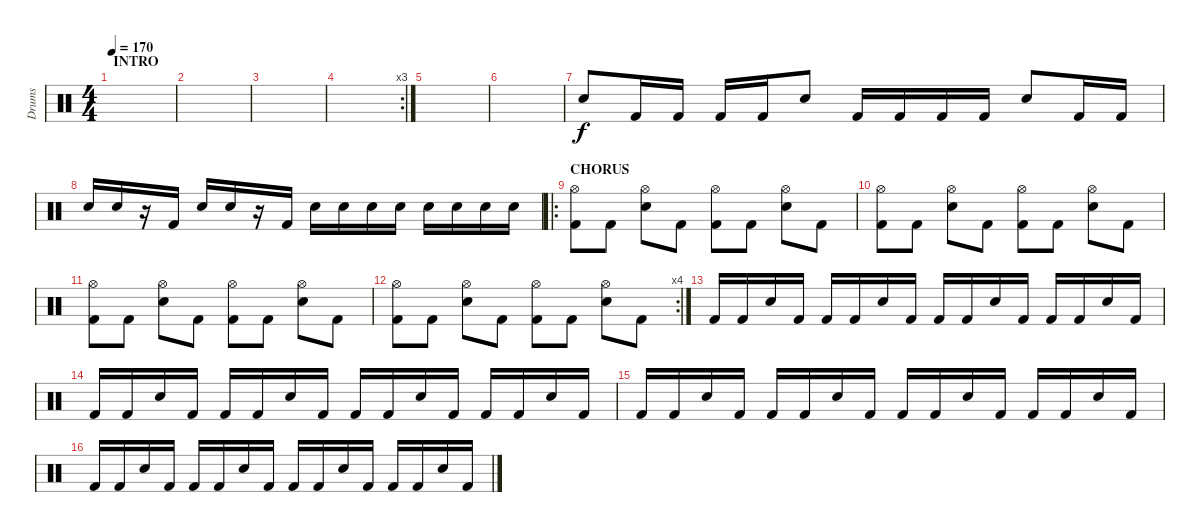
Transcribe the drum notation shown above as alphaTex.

\track ("Drums" "Drums") {instrument percussion}
\staff {score}
\articulation defaults
\ts (4 4)
\section ("" "INTRO")
\tempo 170
\clef neutral
\ks c
|
|
|
\rc 3
|
|
|
"Snare (hit) 2".8 "Kick (hit) 2".16 "Kick (hit) 2".16 "Kick (hit) 2".16 "Kick (hit) 2".16 "Snare (hit) 2".8 "Kick (hit) 2".16 "Kick (hit) 2".16 "Kick (hit) 2".16 "Kick (hit) 2".16 "Snare (hit) 2".8 "Kick (hit) 2".16 "Kick (hit) 2".16 |
"Snare (hit) 2".16 "Snare (hit) 2".16 r.16 "Kick (hit) 2".16 "Snare (hit) 2".16 "Snare (hit) 2".16 r.16 "Kick (hit) 2".16 "Snare (hit) 2".16 "Snare (hit) 2".16 "Snare (hit) 2".16 "Snare (hit) 2".16 "Snare (hit) 2".16 "Snare (hit) 2".16 "Snare (hit) 2".16 "Snare (hit) 2".16 |
\ro
\section ("" "CHORUS")
("Hi-Hat (open)" "Kick (hit) 2").8 "Kick (hit) 2".8 ("Hi-Hat (open)" "Snare (hit) 2").8 "Kick (hit) 2".8 ("Hi-Hat (open)" "Kick (hit) 2").8 "Kick (hit) 2".8 ("Hi-Hat (open)" "Snare (hit) 2").8 "Kick (hit) 2".8 |
("Hi-Hat (open)" "Kick (hit) 2").8 "Kick (hit) 2".8 ("Hi-Hat (open)" "Snare (hit) 2").8 "Kick (hit) 2".8 ("Hi-Hat (open)" "Kick (hit) 2").8 "Kick (hit) 2".8 ("Hi-Hat (open)" "Snare (hit) 2").8 "Kick (hit) 2".8 |
("Hi-Hat (open)" "Kick (hit) 2").8 "Kick (hit) 2".8 ("Hi-Hat (open)" "Snare (hit) 2").8 "Kick (hit) 2".8 ("Hi-Hat (open)" "Kick (hit) 2").8 "Kick (hit) 2".8 ("Hi-Hat (open)" "Snare (hit) 2").8 "Kick (hit) 2".8 |
\rc 4
("Hi-Hat (open)" "Kick (hit) 2").8 "Kick (hit) 2".8 ("Hi-Hat (open)" "Snare (hit) 2").8 "Kick (hit) 2".8 ("Hi-Hat (open)" "Kick (hit) 2").8 "Kick (hit) 2".8 ("Hi-Hat (open)" "Snare (hit) 2").8 "Kick (hit) 2".8 |
"Kick (hit) 2".16 "Kick (hit) 2".16 "Snare (hit) 2".16 "Kick (hit) 2".16 "Kick (hit) 2".16 "Kick (hit) 2".16 "Snare (hit) 2".16 "Kick (hit) 2".16 "Kick (hit) 2".16 "Kick (hit) 2".16 "Snare (hit) 2".16 "Kick (hit) 2".16 "Kick (hit) 2".16 "Kick (hit) 2".16 "Snare (hit) 2".16 "Kick (hit) 2".16 |
"Kick (hit) 2".16 "Kick (hit) 2".16 "Snare (hit) 2".16 "Kick (hit) 2".16 "Kick (hit) 2".16 "Kick (hit) 2".16 "Snare (hit) 2".16 "Kick (hit) 2".16 "Kick (hit) 2".16 "Kick (hit) 2".16 "Snare (hit) 2".16 "Kick (hit) 2".16 "Kick (hit) 2".16 "Kick (hit) 2".16 "Snare (hit) 2".16 "Kick (hit) 2".16 |
"Kick (hit) 2".16 "Kick (hit) 2".16 "Snare (hit) 2".16 "Kick (hit) 2".16 "Kick (hit) 2".16 "Kick (hit) 2".16 "Snare (hit) 2".16 "Kick (hit) 2".16 "Kick (hit) 2".16 "Kick (hit) 2".16 "Snare (hit) 2".16 "Kick (hit) 2".16 "Kick (hit) 2".16 "Kick (hit) 2".16 "Snare (hit) 2".16 "Kick (hit) 2".16 |
"Kick (hit) 2".16 "Kick (hit) 2".16 "Snare (hit) 2".16 "Kick (hit) 2".16 "Kick (hit) 2".16 "Kick (hit) 2".16 "Snare (hit) 2".16 "Kick (hit) 2".16 "Kick (hit) 2".16 "Kick (hit) 2".16 "Snare (hit) 2".16 "Kick (hit) 2".16 "Kick (hit) 2".16 "Kick (hit) 2".16 "Snare (hit) 2".16 "Kick (hit) 2".16
